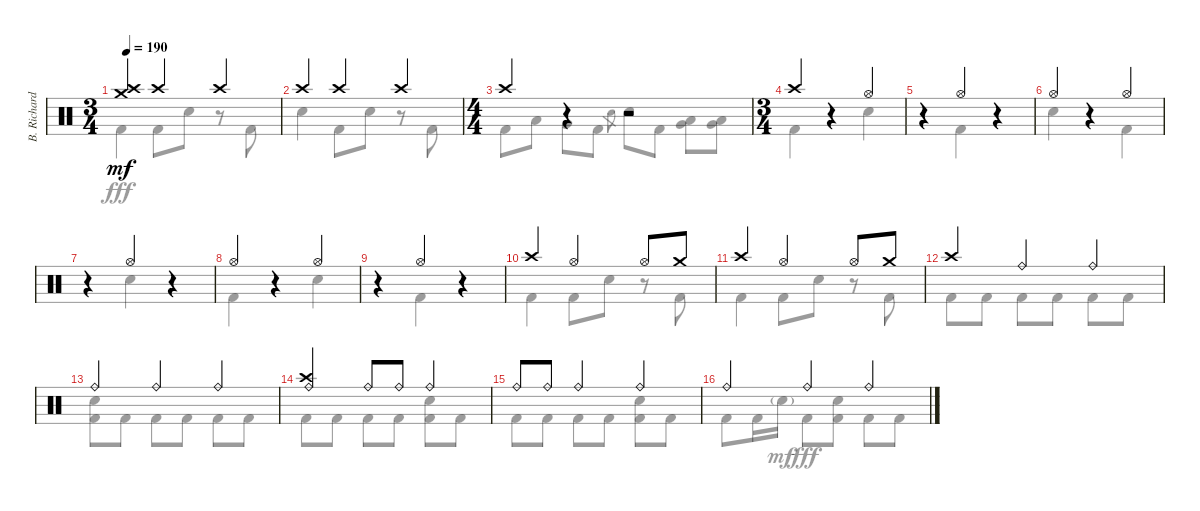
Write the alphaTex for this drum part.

\track ("B. Richardson Drums" "B. Richard") {instrument percussion}
\staff {score}
\articulation defaults
\voice
\ts (3 4)
\tempo 190
\clef neutral
\ks c
("Crash high (hit)" "Crash medium (hit)").4{dy mf} "Crash high (hit)".4 "Crash high (hit)".4 |
"Crash high (hit)".4 "Crash high (hit)".4 "Crash high (hit)".4 |
\ts (4 4)
"Crash high (hit)".4 r.4 r.2 |
\ts (3 4)
"Crash high (hit)".4 r.4 "Hi-Hat (open)".4 |
r.4 "Hi-Hat (open)".4 r.4 |
"Hi-Hat (open)".4 r.4 "Hi-Hat (open)".4 |
r.4 "Hi-Hat (open)".4 r.4 |
"Hi-Hat (open)".4 r.4 "Hi-Hat (open)".4 |
r.4 "Hi-Hat (open)".4 r.4 |
"Crash high (hit)".4 "Hi-Hat (open)".4 "Hi-Hat (open)".8 "Crash medium (hit)".8 |
"Crash high (hit)".4 "Hi-Hat (open)".4 "Hi-Hat (open)".8 "Crash medium (hit)".8 |
"Crash high (hit)".4 "Ride (bell)".4 "Ride (bell)".4 |
"Ride (bell)".4 "Ride (bell)".4 "Ride (bell)".4 |
("Crash high (hit)" "Ride (bell)").4 "Ride (bell)".8 "Ride (bell)".8 "Ride (bell)".4 |
"Ride (bell)".8 "Ride (bell)".8 "Ride (bell)".4 "Ride (bell)".4 |
"Ride (bell)".4 "Ride (bell)".4 "Ride (bell)".4
\voice
\clef neutral
\ottava regular
\simile none
\ks c "Kick (hit) 2".4{dy fff} "Kick (hit) 2".8 "Electric Snare (hit)".8
r.8 "Kick (hit) 2".8 |
"Electric Snare (hit)".4 "Kick (hit) 2".8 "Electric Snare (hit)".8 r.8 "Kick (hit) 2".8 |
"Kick (hit) 2".8 "Low Tom (hit)".8 "Very Low Tom (hit)".8 "Kick (hit) 2".8 "Electric Snare (hit)".8{gr} "Electric Snare (hit)".8 "Kick (hit) 2".8 ("Low Tom (hit)" "Very Low Tom (hit)").8 ("Low Tom (hit)" "Very Low Tom (hit)").8 |
"Kick (hit) 2".4 r.4 "Electric Snare (hit)".4 |
r.4 "Kick (hit) 2".4 r.4 |
"Electric Snare (hit)".4 r.4 "Kick (hit) 2".4 |
r.4 "Electric Snare (hit)".4 r.4 |
"Kick (hit) 2".4 r.4 "Electric Snare (hit)".4 |
r.4 "Kick (hit) 2".4 r.4 |
"Kick (hit) 2".4 "Kick (hit) 2".8 "Electric Snare (hit)".8 r.8 "Kick (hit) 2".8 |
"Kick (hit) 2".4 "Kick (hit) 2".8 "Electric Snare (hit)".8 r.8 "Kick (hit) 2".8 |
"Kick (hit) 2".8 "Kick (hit) 2".8 "Kick (hit) 2".8 "Kick (hit) 2".8 "Kick (hit) 2".8 "Kick (hit) 2".8 |
("Electric Snare (hit)" "Kick (hit) 2").8 "Kick (hit) 2".8 "Kick (hit) 2".8 "Kick (hit) 2".8 "Kick (hit) 2".8 "Kick (hit) 2".8 |
"Kick (hit) 2".8 "Kick (hit) 2".8 "Kick (hit) 2".8 "Kick (hit) 2".8 ("Electric Snare (hit)" "Kick (hit) 2").8 "Kick (hit) 2".8 |
"Kick (hit) 2".8 "Kick (hit) 2".8 "Kick (hit) 2".8 "Kick (hit) 2".8 ("Electric Snare (hit)" "Kick (hit) 2").8 "Kick (hit) 2".8 |
"Kick (hit) 2".8 "Kick (hit) 2".16 "Electric Snare (hit)"{g}.16{dy mf} "Kick (hit) 2".8{dy fff} ("Electric Snare (hit)" "Kick (hit) 2").8 "Kick (hit) 2".8 "Kick (hit) 2".8
